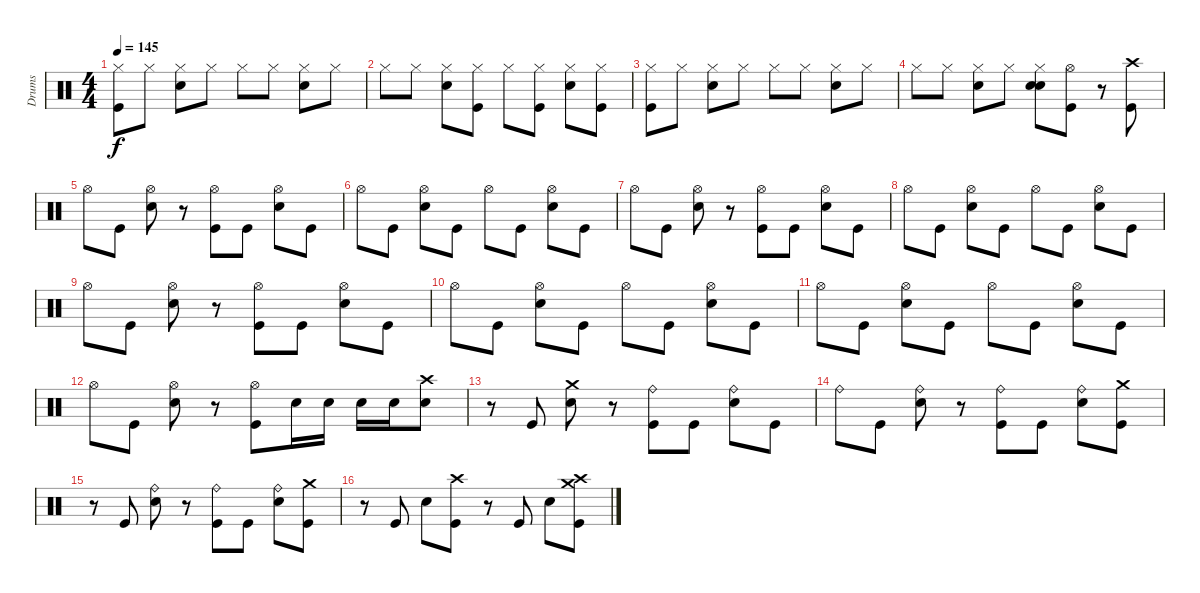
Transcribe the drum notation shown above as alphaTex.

\track ("Drums" "Drums") {instrument percussion}
\staff {score}
\articulation defaults
\ts (4 4)
\tempo 145
\clef neutral
\ks c
("Hi-Hat (closed)" "Kick (hit)").8{dy f} "Hi-Hat (closed)".8 ("Hi-Hat (closed)" "Snare (hit) 2").8 "Hi-Hat (closed)".8 "Hi-Hat (closed)".8 "Hi-Hat (closed)".8 ("Hi-Hat (closed)" "Snare (hit) 2").8 "Hi-Hat (closed)".8 |
"Hi-Hat (closed)".8 "Hi-Hat (closed)".8 ("Hi-Hat (closed)" "Snare (hit) 2").8 ("Hi-Hat (closed)" "Kick (hit)").8 "Hi-Hat (closed)".8 ("Hi-Hat (closed)" "Kick (hit)").8 ("Hi-Hat (closed)" "Snare (hit) 2").8 ("Hi-Hat (closed)" "Kick (hit)").8 |
("Hi-Hat (closed)" "Kick (hit)").8 "Hi-Hat (closed)".8 ("Hi-Hat (closed)" "Snare (hit) 2").8 "Hi-Hat (closed)".8 "Hi-Hat (closed)".8 "Hi-Hat (closed)".8 ("Hi-Hat (closed)" "Snare (hit) 2").8 "Hi-Hat (closed)".8 |
"Hi-Hat (closed)".8 "Hi-Hat (closed)".8 ("Hi-Hat (closed)" "Snare (hit) 2").8 "Hi-Hat (closed)".8 ("Hi-Hat (closed)" "Snare (hit) 2" "Snare (hit) 2").8 ("Hi-Hat (open)" "Kick (hit)").8 r.8 ("Crash high (hit)" "Kick (hit)").8 |
"Hi-Hat (open)".8 "Kick (hit)".8 ("Hi-Hat (open)" "Snare (hit) 2").8 r.8 ("Hi-Hat (open)" "Kick (hit)").8 "Kick (hit)".8 ("Hi-Hat (open)" "Snare (hit) 2").8 "Kick (hit)".8 |
"Hi-Hat (open)".8 "Kick (hit)".8 ("Hi-Hat (open)" "Snare (hit) 2").8 "Kick (hit)".8 "Hi-Hat (open)".8 "Kick (hit)".8 ("Hi-Hat (open)" "Snare (hit) 2").8 "Kick (hit)".8 |
"Hi-Hat (open)".8 "Kick (hit)".8 ("Hi-Hat (open)" "Snare (hit) 2").8 r.8 ("Hi-Hat (open)" "Kick (hit)").8 "Kick (hit)".8 ("Hi-Hat (open)" "Snare (hit) 2").8 "Kick (hit)".8 |
"Hi-Hat (open)".8 "Kick (hit)".8 ("Hi-Hat (open)" "Snare (hit) 2").8 "Kick (hit)".8 "Hi-Hat (open)".8 "Kick (hit)".8 ("Hi-Hat (open)" "Snare (hit) 2").8 "Kick (hit)".8 |
"Hi-Hat (open)".8 "Kick (hit)".8 ("Hi-Hat (open)" "Snare (hit) 2").8 r.8 ("Hi-Hat (open)" "Kick (hit)").8 "Kick (hit)".8 ("Hi-Hat (open)" "Snare (hit) 2").8 "Kick (hit)".8 |
"Hi-Hat (open)".8 "Kick (hit)".8 ("Hi-Hat (open)" "Snare (hit) 2").8 "Kick (hit)".8 "Hi-Hat (open)".8 "Kick (hit)".8 ("Hi-Hat (open)" "Snare (hit) 2").8 "Kick (hit)".8 |
"Hi-Hat (open)".8 "Kick (hit)".8 ("Hi-Hat (open)" "Snare (hit) 2").8 "Kick (hit)".8 "Hi-Hat (open)".8 "Kick (hit)".8 ("Hi-Hat (open)" "Snare (hit) 2").8 "Kick (hit)".8 |
"Hi-Hat (open)".8 "Kick (hit)".8 ("Hi-Hat (open)" "Snare (hit) 2").8 r.8 ("Hi-Hat (open)" "Kick (hit)").8 "Snare (hit) 2".16 "Snare (hit) 2".16 "Snare (hit) 2".16 "Snare (hit) 2".16 ("Crash high (hit)" "Snare (hit) 2").8 |
r.8 "Kick (hit)".8 ("Crash medium (hit)" "Snare (hit) 2").8 r.8 ("Ride (bell)" "Kick (hit)").8 "Kick (hit)".8 ("Ride (bell)" "Snare (hit) 2").8 "Kick (hit)".8 |
"Ride (bell)".8 "Kick (hit)".8 ("Ride (bell)" "Snare (hit) 2").8 r.8 ("Ride (bell)" "Kick (hit)").8 "Kick (hit)".8 ("Ride (bell)" "Snare (hit) 2").8 ("Crash medium (hit)" "Kick (hit)").8 |
r.8 "Kick (hit)".8 ("Ride (bell)" "Snare (hit) 2").8 r.8 ("Ride (bell)" "Kick (hit)").8 "Kick (hit)".8 ("Ride (bell)" "Snare (hit) 2").8 ("Crash medium (hit)" "Kick (hit)").8 |
r.8 "Kick (hit)".8 "Snare (hit) 2".8 ("Crash high (hit)" "Kick (hit)").8 r.8 "Kick (hit)".8 "Snare (hit) 2".8 ("Crash high (hit)" "Crash medium (hit)" "Kick (hit)").8
